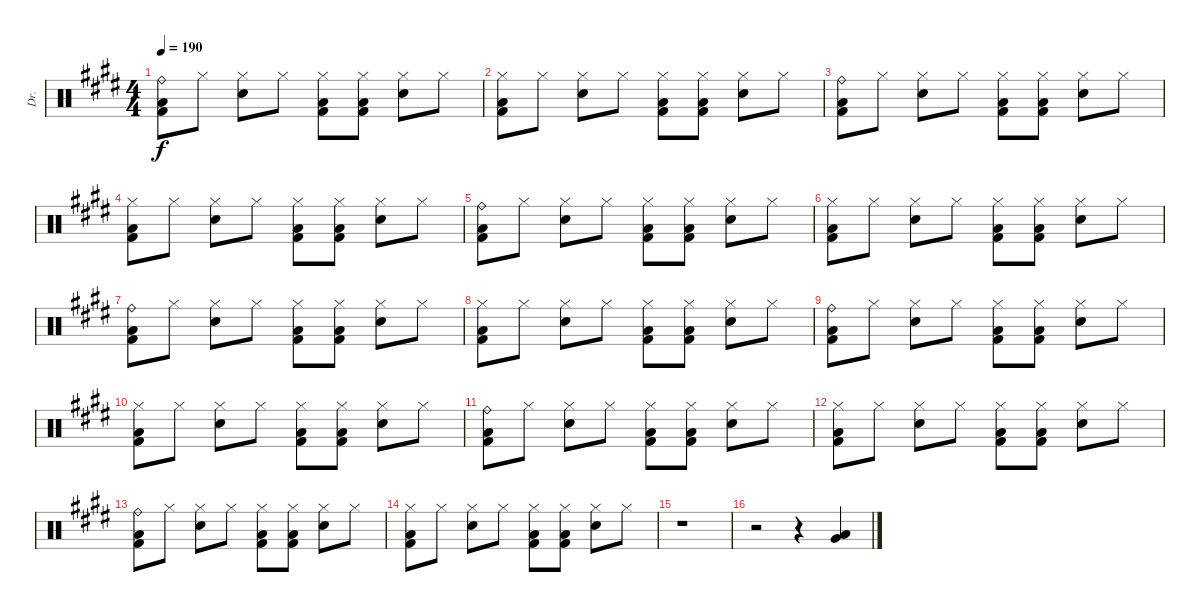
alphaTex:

\track ("Dr." "Dr.") {instrument percussion}
\staff {score}
\articulation defaults
\ts (4 4)
\tempo 190
\clef neutral
\ks e
("Ride (bell)" "Low Floor Tom (hit)" "Kick (hit) 2").8{dy f} "Hi-Hat (closed)".8 ("Electric Snare (hit)" "Hi-Hat (closed)").8 "Hi-Hat (closed)".8 ("Hi-Hat (closed)" "Low Floor Tom (hit)" "Kick (hit) 2").8 ("Hi-Hat (closed)" "Low Floor Tom (hit)" "Kick (hit) 2").8 ("Electric Snare (hit)" "Hi-Hat (closed)").8 "Hi-Hat (closed)".8 |
("Hi-Hat (closed)" "Low Floor Tom (hit)" "Kick (hit) 2").8 "Hi-Hat (closed)".8 ("Electric Snare (hit)" "Hi-Hat (closed)").8 "Hi-Hat (closed)".8 ("Hi-Hat (closed)" "Low Floor Tom (hit)" "Kick (hit) 2").8 ("Hi-Hat (closed)" "Low Floor Tom (hit)" "Kick (hit) 2").8 ("Electric Snare (hit)" "Hi-Hat (closed)").8 "Hi-Hat (closed)".8 |
("Ride (bell)" "Low Floor Tom (hit)" "Kick (hit) 2").8 "Hi-Hat (closed)".8 ("Electric Snare (hit)" "Hi-Hat (closed)").8 "Hi-Hat (closed)".8 ("Hi-Hat (closed)" "Low Floor Tom (hit)" "Kick (hit) 2").8 ("Hi-Hat (closed)" "Low Floor Tom (hit)" "Kick (hit) 2").8 ("Electric Snare (hit)" "Hi-Hat (closed)").8 "Hi-Hat (closed)".8 |
("Hi-Hat (closed)" "Low Floor Tom (hit)" "Kick (hit) 2").8 "Hi-Hat (closed)".8 ("Electric Snare (hit)" "Hi-Hat (closed)").8 "Hi-Hat (closed)".8 ("Hi-Hat (closed)" "Low Floor Tom (hit)" "Kick (hit) 2").8 ("Hi-Hat (closed)" "Low Floor Tom (hit)" "Kick (hit) 2").8 ("Electric Snare (hit)" "Hi-Hat (closed)").8 "Hi-Hat (closed)".8 |
("Ride (bell)" "Low Floor Tom (hit)" "Kick (hit) 2").8 "Hi-Hat (closed)".8 ("Electric Snare (hit)" "Hi-Hat (closed)").8 "Hi-Hat (closed)".8 ("Hi-Hat (closed)" "Low Floor Tom (hit)" "Kick (hit) 2").8 ("Hi-Hat (closed)" "Low Floor Tom (hit)" "Kick (hit) 2").8 ("Electric Snare (hit)" "Hi-Hat (closed)").8 "Hi-Hat (closed)".8 |
("Hi-Hat (closed)" "Low Floor Tom (hit)" "Kick (hit) 2").8 "Hi-Hat (closed)".8 ("Electric Snare (hit)" "Hi-Hat (closed)").8 "Hi-Hat (closed)".8 ("Hi-Hat (closed)" "Low Floor Tom (hit)" "Kick (hit) 2").8 ("Hi-Hat (closed)" "Low Floor Tom (hit)" "Kick (hit) 2").8 ("Electric Snare (hit)" "Hi-Hat (closed)").8 "Hi-Hat (closed)".8 |
("Ride (bell)" "Low Floor Tom (hit)" "Kick (hit) 2").8 "Hi-Hat (closed)".8 ("Electric Snare (hit)" "Hi-Hat (closed)").8 "Hi-Hat (closed)".8 ("Hi-Hat (closed)" "Low Floor Tom (hit)" "Kick (hit) 2").8 ("Hi-Hat (closed)" "Low Floor Tom (hit)" "Kick (hit) 2").8 ("Electric Snare (hit)" "Hi-Hat (closed)").8 "Hi-Hat (closed)".8 |
("Hi-Hat (closed)" "Low Floor Tom (hit)" "Kick (hit) 2").8 "Hi-Hat (closed)".8 ("Electric Snare (hit)" "Hi-Hat (closed)").8 "Hi-Hat (closed)".8 ("Hi-Hat (closed)" "Low Floor Tom (hit)" "Kick (hit) 2").8 ("Hi-Hat (closed)" "Low Floor Tom (hit)" "Kick (hit) 2").8 ("Electric Snare (hit)" "Hi-Hat (closed)").8 "Hi-Hat (closed)".8 |
("Ride (bell)" "Low Floor Tom (hit)" "Kick (hit) 2").8 "Hi-Hat (closed)".8 ("Electric Snare (hit)" "Hi-Hat (closed)").8 "Hi-Hat (closed)".8 ("Hi-Hat (closed)" "Low Floor Tom (hit)" "Kick (hit) 2").8 ("Hi-Hat (closed)" "Low Floor Tom (hit)" "Kick (hit) 2").8 ("Electric Snare (hit)" "Hi-Hat (closed)").8 "Hi-Hat (closed)".8 |
("Hi-Hat (closed)" "Low Floor Tom (hit)" "Kick (hit) 2").8 "Hi-Hat (closed)".8 ("Electric Snare (hit)" "Hi-Hat (closed)").8 "Hi-Hat (closed)".8 ("Hi-Hat (closed)" "Low Floor Tom (hit)" "Kick (hit) 2").8 ("Hi-Hat (closed)" "Low Floor Tom (hit)" "Kick (hit) 2").8 ("Electric Snare (hit)" "Hi-Hat (closed)").8 "Hi-Hat (closed)".8 |
("Ride (bell)" "Low Floor Tom (hit)" "Kick (hit) 2").8 "Hi-Hat (closed)".8 ("Electric Snare (hit)" "Hi-Hat (closed)").8 "Hi-Hat (closed)".8 ("Hi-Hat (closed)" "Low Floor Tom (hit)" "Kick (hit) 2").8 ("Hi-Hat (closed)" "Low Floor Tom (hit)" "Kick (hit) 2").8 ("Electric Snare (hit)" "Hi-Hat (closed)").8 "Hi-Hat (closed)".8 |
("Hi-Hat (closed)" "Low Floor Tom (hit)" "Kick (hit) 2").8 "Hi-Hat (closed)".8 ("Electric Snare (hit)" "Hi-Hat (closed)").8 "Hi-Hat (closed)".8 ("Hi-Hat (closed)" "Low Floor Tom (hit)" "Kick (hit) 2").8 ("Hi-Hat (closed)" "Low Floor Tom (hit)" "Kick (hit) 2").8 ("Electric Snare (hit)" "Hi-Hat (closed)").8 "Hi-Hat (closed)".8 |
("Ride (bell)" "Low Floor Tom (hit)" "Kick (hit) 2").8 "Hi-Hat (closed)".8 ("Electric Snare (hit)" "Hi-Hat (closed)").8 "Hi-Hat (closed)".8 ("Hi-Hat (closed)" "Low Floor Tom (hit)" "Kick (hit) 2").8 ("Hi-Hat (closed)" "Low Floor Tom (hit)" "Kick (hit) 2").8 ("Electric Snare (hit)" "Hi-Hat (closed)").8 "Hi-Hat (closed)".8 |
("Hi-Hat (closed)" "Low Floor Tom (hit)" "Kick (hit) 2").8 "Hi-Hat (closed)".8 ("Electric Snare (hit)" "Hi-Hat (closed)").8 "Hi-Hat (closed)".8 ("Hi-Hat (closed)" "Low Floor Tom (hit)" "Kick (hit) 2").8 ("Hi-Hat (closed)" "Low Floor Tom (hit)" "Kick (hit) 2").8 ("Electric Snare (hit)" "Hi-Hat (closed)").8 "Hi-Hat (closed)".8 |
r.1 |
r.2 r.4 ("Very Low Tom (hit)" "Low Floor Tom (hit)").4
